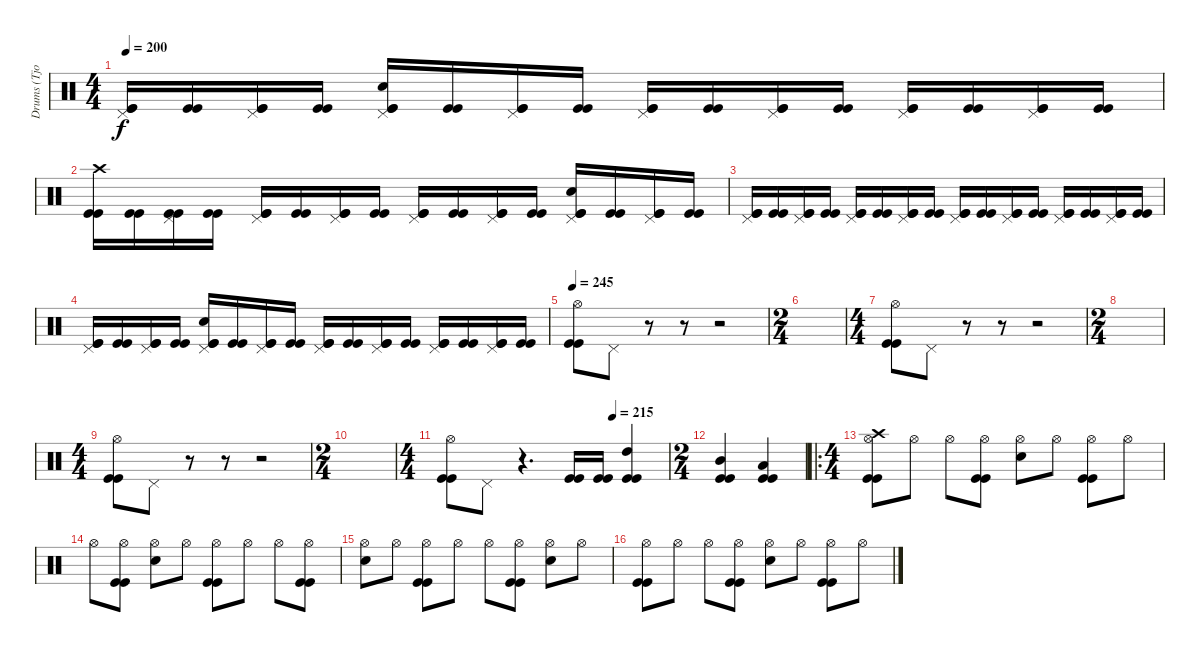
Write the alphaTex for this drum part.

\track ("Drums (Tjodalv)" "Drums (Tjo") {instrument percussion}
\staff {score}
\articulation defaults
\ts (4 4)
\tempo 200
\clef neutral
\ks c
("Pedal Hi-Hat (hit)" "Kick (hit)" "Kick (hit)").16{dy f} ("Kick (hit)" "Kick (hit)").16 ("Pedal Hi-Hat (hit)" "Kick (hit)" "Kick (hit)").16 ("Kick (hit)" "Kick (hit)").16 ("Snare (hit) 2" "Pedal Hi-Hat (hit)" "Kick (hit)" "Kick (hit)").16 ("Kick (hit)" "Kick (hit)").16 ("Pedal Hi-Hat (hit)" "Kick (hit)" "Kick (hit)").16 ("Kick (hit)" "Kick (hit)").16 ("Pedal Hi-Hat (hit)" "Kick (hit)" "Kick (hit)").16 ("Kick (hit)" "Kick (hit)").16 ("Pedal Hi-Hat (hit)" "Kick (hit)" "Kick (hit)").16 ("Kick (hit)" "Kick (hit)").16 ("Pedal Hi-Hat (hit)" "Kick (hit)" "Kick (hit)").16 ("Kick (hit)" "Kick (hit)").16 ("Pedal Hi-Hat (hit)" "Kick (hit)" "Kick (hit)").16 ("Kick (hit)" "Kick (hit)").16 |
("Crash high (hit)" "Kick (hit)" "Kick (hit)").16 ("Kick (hit)" "Kick (hit)").16 ("Pedal Hi-Hat (hit)" "Kick (hit)" "Kick (hit)").16 ("Kick (hit)" "Kick (hit)").16 ("Pedal Hi-Hat (hit)" "Kick (hit)" "Kick (hit)").16 ("Kick (hit)" "Kick (hit)").16 ("Pedal Hi-Hat (hit)" "Kick (hit)" "Kick (hit)").16 ("Kick (hit)" "Kick (hit)").16 ("Pedal Hi-Hat (hit)" "Kick (hit)" "Kick (hit)").16 ("Kick (hit)" "Kick (hit)").16 ("Pedal Hi-Hat (hit)" "Kick (hit)" "Kick (hit)").16 ("Kick (hit)" "Kick (hit)").16 ("Snare (hit) 2" "Pedal Hi-Hat (hit)" "Kick (hit)" "Kick (hit)").16 ("Kick (hit)" "Kick (hit)").16 ("Pedal Hi-Hat (hit)" "Kick (hit)" "Kick (hit)").16 ("Kick (hit)" "Kick (hit)").16 |
("Pedal Hi-Hat (hit)" "Kick (hit)" "Kick (hit)").16 ("Kick (hit)" "Kick (hit)").16 ("Pedal Hi-Hat (hit)" "Kick (hit)" "Kick (hit)").16 ("Kick (hit)" "Kick (hit)").16 ("Pedal Hi-Hat (hit)" "Kick (hit)" "Kick (hit)").16 ("Kick (hit)" "Kick (hit)").16 ("Pedal Hi-Hat (hit)" "Kick (hit)" "Kick (hit)").16 ("Kick (hit)" "Kick (hit)").16 ("Pedal Hi-Hat (hit)" "Kick (hit)" "Kick (hit)").16 ("Kick (hit)" "Kick (hit)").16 ("Pedal Hi-Hat (hit)" "Kick (hit)" "Kick (hit)").16 ("Kick (hit)" "Kick (hit)").16 ("Pedal Hi-Hat (hit)" "Kick (hit)" "Kick (hit)").16 ("Kick (hit)" "Kick (hit)").16 ("Pedal Hi-Hat (hit)" "Kick (hit)" "Kick (hit)").16 ("Kick (hit)" "Kick (hit)").16 |
("Pedal Hi-Hat (hit)" "Kick (hit)" "Kick (hit)").16 ("Kick (hit)" "Kick (hit)").16 ("Pedal Hi-Hat (hit)" "Kick (hit)" "Kick (hit)").16 ("Kick (hit)" "Kick (hit)").16 ("Snare (hit) 2" "Pedal Hi-Hat (hit)" "Kick (hit)" "Kick (hit)").16 ("Kick (hit)" "Kick (hit)").16 ("Pedal Hi-Hat (hit)" "Kick (hit)" "Kick (hit)").16 ("Kick (hit)" "Kick (hit)").16 ("Pedal Hi-Hat (hit)" "Kick (hit)" "Kick (hit)").16 ("Kick (hit)" "Kick (hit)").16 ("Pedal Hi-Hat (hit)" "Kick (hit)" "Kick (hit)").16 ("Kick (hit)" "Kick (hit)").16 ("Pedal Hi-Hat (hit)" "Kick (hit)" "Kick (hit)").16 ("Kick (hit)" "Kick (hit)").16 ("Pedal Hi-Hat (hit)" "Kick (hit)" "Kick (hit)").16 ("Kick (hit)" "Kick (hit)").16 |
\tempo 245
("Hi-Hat (open)" "Kick (hit)" "Kick (hit)").8 "Pedal Hi-Hat (hit)".8 r.8 r.8 r.2 |
\ts (2 4)
|
\ts (4 4)
("Hi-Hat (open)" "Kick (hit)" "Kick (hit)").8 "Pedal Hi-Hat (hit)".8 r.8 r.8 r.2 |
\ts (2 4)
|
\ts (4 4)
("Hi-Hat (open)" "Kick (hit)" "Kick (hit)").8 "Pedal Hi-Hat (hit)".8 r.8 r.8 r.2 |
\ts (2 4)
|
\ts (4 4)
\tempo (215 0.75)
("Hi-Hat (open)" "Kick (hit)" "Kick (hit)").8 "Pedal Hi-Hat (hit)".8 r.4{d} ("Kick (hit)" "Kick (hit)").16 ("Kick (hit)" "Kick (hit)").16 ("High Tom (hit)" "Kick (hit)" "Kick (hit)").4{bd 240} |
\ts (2 4)
("Mid Tom (hit)" "Kick (hit)" "Kick (hit)").4{bd 240} ("Low Tom (hit)" "Kick (hit)" "Kick (hit)").4{bd 240} |
\ro
\ts (4 4)
("Crash high (hit)" "Hi-Hat (open)" "Kick (hit)" "Kick (hit)").8 "Hi-Hat (open)".8 "Hi-Hat (open)".8 ("Hi-Hat (open)" "Kick (hit)" "Kick (hit)").8 ("Snare (hit) 2" "Hi-Hat (open)").8 "Hi-Hat (open)".8 ("Hi-Hat (open)" "Kick (hit)" "Kick (hit)").8 "Hi-Hat (open)".8 |
"Hi-Hat (open)".8 ("Hi-Hat (open)" "Kick (hit)" "Kick (hit)").8 ("Snare (hit) 2" "Hi-Hat (open)").8 "Hi-Hat (open)".8 ("Hi-Hat (open)" "Kick (hit)" "Kick (hit)").8 "Hi-Hat (open)".8 "Hi-Hat (open)".8 ("Hi-Hat (open)" "Kick (hit)" "Kick (hit)").8 |
("Snare (hit) 2" "Hi-Hat (open)").8 "Hi-Hat (open)".8 ("Hi-Hat (open)" "Kick (hit)" "Kick (hit)").8 "Hi-Hat (open)".8 "Hi-Hat (open)".8 ("Hi-Hat (open)" "Kick (hit)" "Kick (hit)").8 ("Snare (hit) 2" "Hi-Hat (open)").8 "Hi-Hat (open)".8 |
("Hi-Hat (open)" "Kick (hit)" "Kick (hit)").8 "Hi-Hat (open)".8 "Hi-Hat (open)".8 ("Hi-Hat (open)" "Kick (hit)" "Kick (hit)").8 ("Snare (hit) 2" "Hi-Hat (open)").8 "Hi-Hat (open)".8 ("Hi-Hat (open)" "Kick (hit)" "Kick (hit)").8 "Hi-Hat (open)".8
